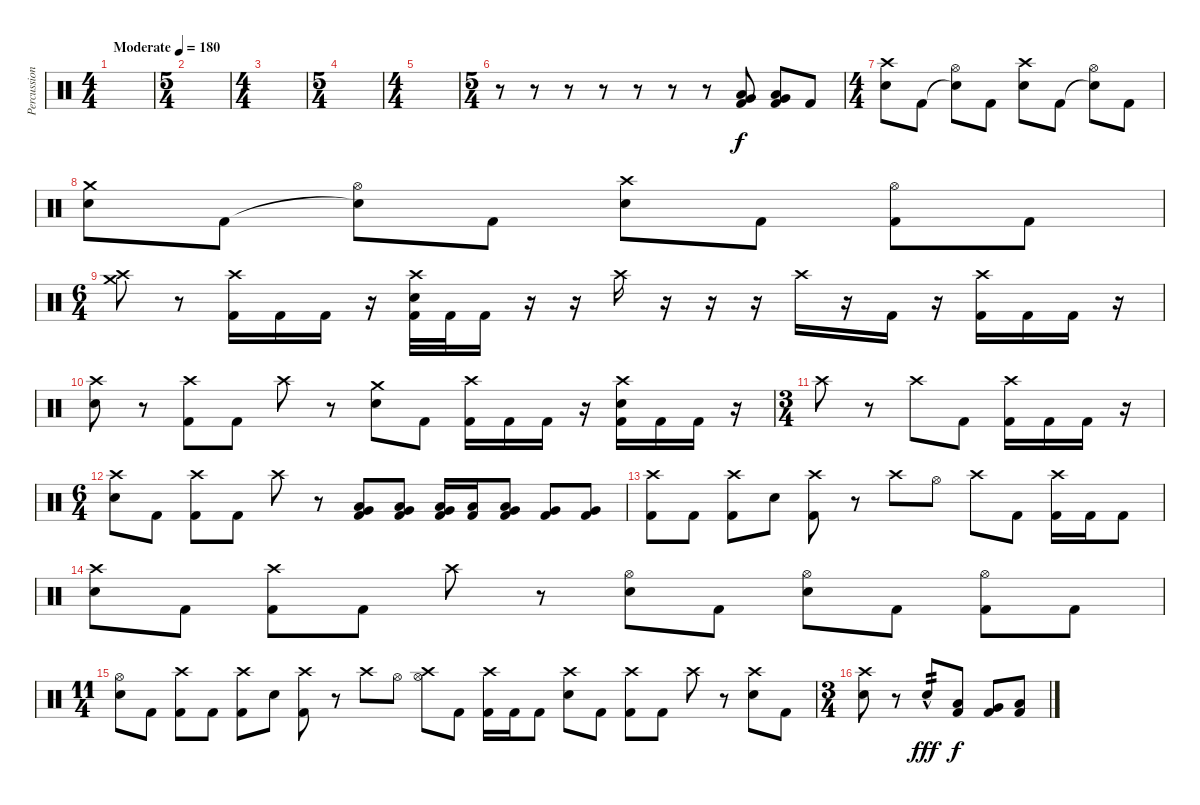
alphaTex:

\track ("Percussion" "Percussion") {instrument percussion}
\staff {score}
\articulation defaults
\ts (4 4)
\tempo (180 "Moderate")
\clef neutral
\ks c
|
\ts (5 4)
|
\ts (4 4)
|
\ts (5 4)
|
\ts (4 4)
|
\ts (5 4)
r.8 r.8 r.8 r.8 r.8 r.8 r.8 ("Kick (hit) 2" "Very Low Tom (hit)" "Low Floor Tom (hit)").8{volume 16} ("Kick (hit) 2" "Very Low Tom (hit)" "Low Floor Tom (hit)").8 "Kick (hit) 2".8 |
\ts (4 4)
("Snare (hit) 2" "Crash high (hit)").8 "Kick (hit) 2".8 ("Snare (hit)"{t} "Hi-Hat (open)").8 "Kick (hit) 2".8 ("Snare (hit) 2" "Crash high (hit)").8 "Kick (hit) 2".8 ("Snare (hit)"{t} "Hi-Hat (open)").8 "Kick (hit) 2".8 |
("Snare (hit) 2" "Crash medium (hit)").8 "Kick (hit) 2".8 ("Snare (hit)"{t} "Hi-Hat (open)").8 "Kick (hit) 2".8 ("Snare (hit) 2" "Crash high (hit)").8 "Kick (hit) 2".8 ("Kick (hit) 2" "Hi-Hat (open)").8 "Kick (hit) 2".8 |
\ts (6 4)
("Crash medium (hit)" "Crash high (hit)").8 r.8 ("Kick (hit) 2" "Crash high (hit)").16 "Kick (hit) 2".16 "Kick (hit) 2".16 r.16 ("Snare (hit) 2" "Kick (hit) 2" "Crash high (hit)").32 "Kick (hit) 2".32 "Kick (hit) 2".16 r.16 r.16 "Crash high (hit)".16 r.16 r.16 r.16 "Crash high (hit)".16 r.16 "Kick (hit) 2".16 r.16 ("Kick (hit) 2" "Crash high (hit)").16 "Kick (hit) 2".16 "Kick (hit) 2".16 r.16 |
("Snare (hit) 2" "Crash high (hit)").8 r.8 ("Kick (hit) 2" "Crash high (hit)").8 "Kick (hit) 2".8 "Crash high (hit)".8 r.8 ("Crash medium (hit)" "Snare (hit) 2").8 "Kick (hit) 2".8 ("Kick (hit) 2" "Crash high (hit)").16 "Kick (hit) 2".16 "Kick (hit) 2".16 r.16 ("Kick (hit) 2" "Snare (hit) 2" "Crash high (hit)").16 "Kick (hit) 2".16 "Kick (hit) 2".16 r.16 |
\ts (3 4)
"Crash high (hit)".8 r.8 "Crash high (hit)".8 "Kick (hit) 2".8 ("Crash high (hit)" "Kick (hit) 2").16 "Kick (hit) 2".16 "Kick (hit) 2".16 r.16 |
\ts (6 4)
("Snare (hit) 2" "Crash high (hit)").8 "Kick (hit) 2".8 ("Kick (hit) 2" "Crash high (hit)").8 "Kick (hit) 2".8 "Crash high (hit)".8 r.8 ("Kick (hit) 2" "Low Floor Tom (hit)" "Very Low Tom (hit)").8 ("Kick (hit) 2" "Low Floor Tom (hit)" "Very Low Tom (hit)").8 ("Kick (hit) 2" "Very Low Tom (hit)" "Low Floor Tom (hit)").16 ("Kick (hit) 2" "Low Floor Tom (hit)").16 ("Very Low Tom (hit)" "Kick (hit) 2" "Low Floor Tom (hit)").8 ("Very Low Tom (hit)" "Kick (hit) 2").8 ("Very Low Tom (hit)" "Kick (hit) 2").8 |
("Kick (hit) 2" "Crash high (hit)").8 "Kick (hit) 2".8 ("Kick (hit) 2" "Crash high (hit)").8 "Snare (hit) 2".8 ("Kick (hit) 2" "Crash high (hit)").8 r.8 "Crash high (hit)".8 "Hi-Hat (open)".8 "Crash high (hit)".8 "Kick (hit) 2".8 ("Kick (hit) 2" "Crash high (hit)").16 "Kick (hit) 2".16 "Kick (hit) 2".8 |
("Crash high (hit)" "Snare (hit) 2").8 "Kick (hit) 2".8 ("Crash high (hit)" "Kick (hit) 2").8 "Kick (hit) 2".8 "Crash high (hit)".8 r.8 ("Snare (hit) 2" "Hi-Hat (open)").8 "Kick (hit) 2".8 ("Snare (hit) 2" "Hi-Hat (open)").8 "Kick (hit) 2".8 ("Kick (hit) 2" "Hi-Hat (open)").8 "Kick (hit) 2".8 |
\ts (11 4)
("Snare (hit) 2" "Hi-Hat (open)").8 "Kick (hit) 2".8 ("Crash high (hit)" "Kick (hit) 2").8 "Kick (hit) 2".8 ("Crash high (hit)" "Kick (hit) 2").8 "Snare (hit) 2".8 ("Crash high (hit)" "Kick (hit) 2").8 r.8 "Crash high (hit)".8 "Hi-Hat (open)".8 ("Crash high (hit)" "Hi-Hat (open)").8 "Kick (hit) 2".8 ("Kick (hit) 2" "Crash high (hit)").16 "Kick (hit) 2".16 "Kick (hit) 2".8 ("Snare (hit) 2" "Crash high (hit)").8 "Kick (hit) 2".8 ("Kick (hit) 2" "Crash high (hit)").8 "Kick (hit) 2".8 "Crash high (hit)".8 r.8 ("Snare (hit) 2" "Crash high (hit)").8 "Kick (hit) 2".8 |
\ts (3 4)
("Snare (hit) 2" "Crash high (hit)").8 r.8 "Snare (hit) 2"{hac}.8{tp 2 dy fff} ("Kick (hit) 2" "Low Tom (hit)").8{dy f} ("Kick (hit) 2" "Very Low Tom (hit)").8 ("Kick (hit) 2" "Low Floor Tom (hit)").8
